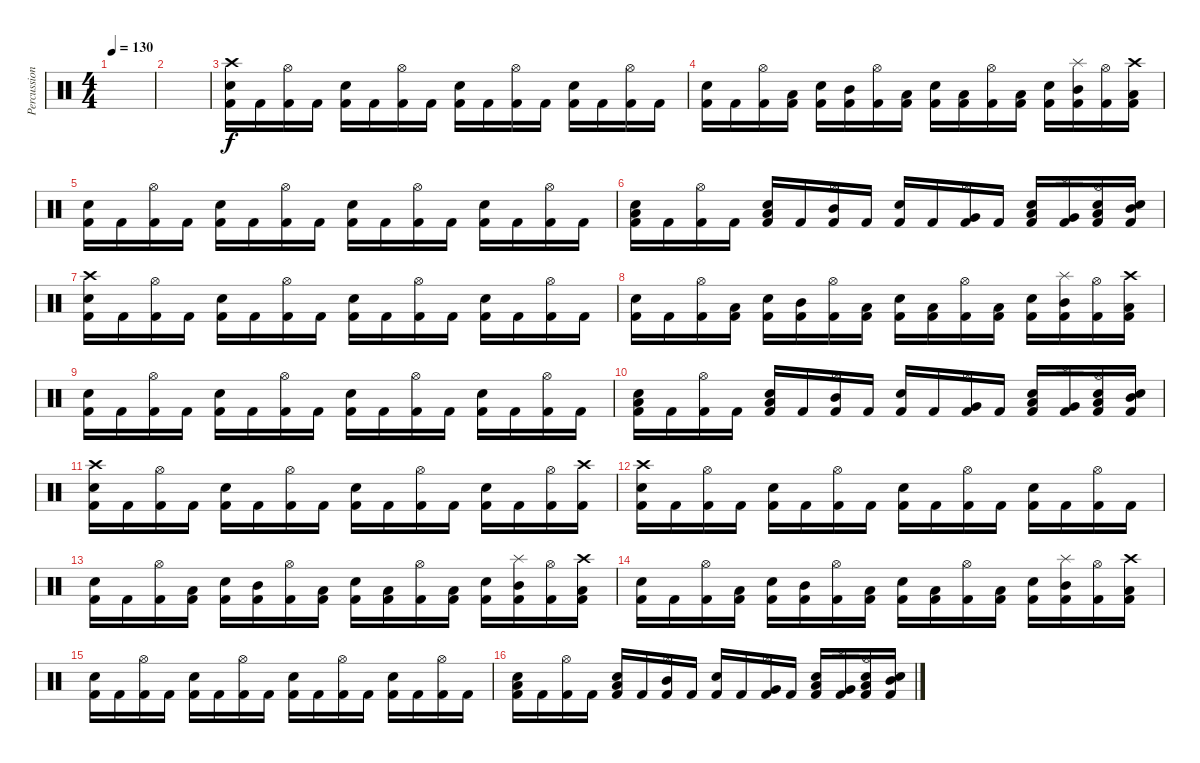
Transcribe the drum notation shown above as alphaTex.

\track ("Percussions" "Percussion") {instrument percussion}
\staff {score}
\articulation defaults
\ts (4 4)
\tempo 130
\clef neutral
\ks c
|
|
("Crash high (hit)" "Electric Snare (hit)" "Kick (hit) 2").16 "Kick (hit) 2".16 ("Hi-Hat (open)" "Kick (hit) 2").16 "Kick (hit) 2".16 ("Electric Snare (hit)" "Kick (hit) 2").16 "Kick (hit) 2".16 ("Hi-Hat (open)" "Kick (hit) 2").16 "Kick (hit) 2".16 ("Electric Snare (hit)" "Kick (hit) 2").16 "Kick (hit) 2".16 ("Hi-Hat (open)" "Kick (hit) 2").16 "Kick (hit) 2".16 ("Electric Snare (hit)" "Kick (hit) 2").16 "Kick (hit) 2".16 ("Hi-Hat (open)" "Kick (hit) 2").16 "Kick (hit) 2".16 |
("Electric Snare (hit)" "Kick (hit) 2").16 "Kick (hit) 2".16 ("Hi-Hat (open)" "Kick (hit) 2").16 ("Low Tom (hit)" "Kick (hit) 2").16 ("Electric Snare (hit)" "Kick (hit) 2").16 ("Mid Tom (hit)" "Kick (hit) 2").16 ("Hi-Hat (open)" "Kick (hit) 2").16 ("Low Tom (hit)" "Kick (hit) 2").16 ("Electric Snare (hit)" "Kick (hit) 2").16 ("Low Floor Tom (hit)" "Kick (hit) 2").16 ("Hi-Hat (open)" "Kick (hit) 2").16 ("Low Tom (hit)" "Kick (hit) 2").16 ("Electric Snare (hit)" "Kick (hit) 2").16 ("Splash (hit)" "Mid Tom (hit)" "Kick (hit) 2").16 ("Hi-Hat (open)" "Kick (hit) 2").16 ("Crash high (hit)" "Low Tom (hit)" "Kick (hit) 2").16 |
("Electric Snare (hit)" "Kick (hit) 2").16 "Kick (hit) 2".16 ("Hi-Hat (open)" "Kick (hit) 2").16 "Kick (hit) 2".16 ("Electric Snare (hit)" "Kick (hit) 2").16 "Kick (hit) 2".16 ("Hi-Hat (open)" "Kick (hit) 2").16 "Kick (hit) 2".16 ("Electric Snare (hit)" "Kick (hit) 2").16 "Kick (hit) 2".16 ("Hi-Hat (open)" "Kick (hit) 2").16 "Kick (hit) 2".16 ("Electric Snare (hit)" "Kick (hit) 2").16 "Kick (hit) 2".16 ("Hi-Hat (open)" "Kick (hit) 2").16 "Kick (hit) 2".16 |
("Low Floor Tom (hit)" "Electric Snare (hit)" "Kick (hit) 2").16 "Kick (hit) 2".16 ("Hi-Hat (open)" "Kick (hit) 2").16 "Kick (hit) 2".16 ("Low Tom (hit)" "Electric Snare (hit)" "Kick (hit) 2").16 "Kick (hit) 2".16 ("Hi-Hat (open)" "Mid Tom (hit)" "Kick (hit) 2").16 "Kick (hit) 2".16 ("Electric Snare (hit)" "Kick (hit) 2").16 "Kick (hit) 2".16 ("Hi-Hat (open)" "Very Low Tom (hit)" "Kick (hit) 2").16 "Kick (hit) 2".16 ("Low Floor Tom (hit)" "Electric Snare (hit)" "Kick (hit) 2").16 ("Splash (hit)" "Very Low Tom (hit)" "Kick (hit) 2").16 ("Hi-Hat (open)" "Low Tom (hit)" "Electric Snare (hit)" "Kick (hit) 2").16 ("Mid Tom (hit)" "Electric Snare (hit)" "Kick (hit) 2").16 |
("Crash high (hit)" "Electric Snare (hit)" "Kick (hit) 2").16 "Kick (hit) 2".16 ("Hi-Hat (open)" "Kick (hit) 2").16 "Kick (hit) 2".16 ("Electric Snare (hit)" "Kick (hit) 2").16 "Kick (hit) 2".16 ("Hi-Hat (open)" "Kick (hit) 2").16 "Kick (hit) 2".16 ("Electric Snare (hit)" "Kick (hit) 2").16 "Kick (hit) 2".16 ("Hi-Hat (open)" "Kick (hit) 2").16 "Kick (hit) 2".16 ("Electric Snare (hit)" "Kick (hit) 2").16 "Kick (hit) 2".16 ("Hi-Hat (open)" "Kick (hit) 2").16 "Kick (hit) 2".16 |
("Electric Snare (hit)" "Kick (hit) 2").16 "Kick (hit) 2".16 ("Hi-Hat (open)" "Kick (hit) 2").16 ("Low Tom (hit)" "Kick (hit) 2").16 ("Electric Snare (hit)" "Kick (hit) 2").16 ("Mid Tom (hit)" "Kick (hit) 2").16 ("Hi-Hat (open)" "Kick (hit) 2").16 ("Low Tom (hit)" "Kick (hit) 2").16 ("Electric Snare (hit)" "Kick (hit) 2").16 ("Low Floor Tom (hit)" "Kick (hit) 2").16 ("Hi-Hat (open)" "Kick (hit) 2").16 ("Low Tom (hit)" "Kick (hit) 2").16 ("Electric Snare (hit)" "Kick (hit) 2").16 ("Splash (hit)" "Mid Tom (hit)" "Kick (hit) 2").16 ("Hi-Hat (open)" "Kick (hit) 2").16 ("Crash high (hit)" "Low Tom (hit)" "Kick (hit) 2").16 |
("Electric Snare (hit)" "Kick (hit) 2").16 "Kick (hit) 2".16 ("Hi-Hat (open)" "Kick (hit) 2").16 "Kick (hit) 2".16 ("Electric Snare (hit)" "Kick (hit) 2").16 "Kick (hit) 2".16 ("Hi-Hat (open)" "Kick (hit) 2").16 "Kick (hit) 2".16 ("Electric Snare (hit)" "Kick (hit) 2").16 "Kick (hit) 2".16 ("Hi-Hat (open)" "Kick (hit) 2").16 "Kick (hit) 2".16 ("Electric Snare (hit)" "Kick (hit) 2").16 "Kick (hit) 2".16 ("Hi-Hat (open)" "Kick (hit) 2").16 "Kick (hit) 2".16 |
("Low Floor Tom (hit)" "Electric Snare (hit)" "Kick (hit) 2").16 "Kick (hit) 2".16 ("Hi-Hat (open)" "Kick (hit) 2").16 "Kick (hit) 2".16 ("Low Tom (hit)" "Electric Snare (hit)" "Kick (hit) 2").16 "Kick (hit) 2".16 ("Hi-Hat (open)" "Mid Tom (hit)" "Kick (hit) 2").16 "Kick (hit) 2".16 ("Electric Snare (hit)" "Kick (hit) 2").16 "Kick (hit) 2".16 ("Hi-Hat (open)" "Very Low Tom (hit)" "Kick (hit) 2").16 "Kick (hit) 2".16 ("Low Floor Tom (hit)" "Electric Snare (hit)" "Kick (hit) 2").16 ("Splash (hit)" "Very Low Tom (hit)" "Kick (hit) 2").16 ("Hi-Hat (open)" "Low Tom (hit)" "Electric Snare (hit)" "Kick (hit) 2").16 ("Mid Tom (hit)" "Electric Snare (hit)" "Kick (hit) 2").16 |
("Crash high (hit)" "Electric Snare (hit)" "Kick (hit) 2").16 "Kick (hit) 2".16 ("Hi-Hat (open)" "Kick (hit) 2").16 "Kick (hit) 2".16 ("Electric Snare (hit)" "Kick (hit) 2").16 "Kick (hit) 2".16 ("Hi-Hat (open)" "Kick (hit) 2").16 "Kick (hit) 2".16 ("Electric Snare (hit)" "Kick (hit) 2").16 "Kick (hit) 2".16 ("Hi-Hat (open)" "Kick (hit) 2").16 "Kick (hit) 2".16 ("Electric Snare (hit)" "Kick (hit) 2").16 "Kick (hit) 2".16 ("Hi-Hat (open)" "Kick (hit) 2").16 ("Crash high (hit)" "Kick (hit) 2").16 |
("Crash high (hit)" "Electric Snare (hit)" "Kick (hit) 2").16 "Kick (hit) 2".16 ("Hi-Hat (open)" "Kick (hit) 2").16 "Kick (hit) 2".16 ("Electric Snare (hit)" "Kick (hit) 2").16 "Kick (hit) 2".16 ("Hi-Hat (open)" "Kick (hit) 2").16 "Kick (hit) 2".16 ("Electric Snare (hit)" "Kick (hit) 2").16 "Kick (hit) 2".16 ("Hi-Hat (open)" "Kick (hit) 2").16 "Kick (hit) 2".16 ("Electric Snare (hit)" "Kick (hit) 2").16 "Kick (hit) 2".16 ("Hi-Hat (open)" "Kick (hit) 2").16 "Kick (hit) 2".16 |
("Electric Snare (hit)" "Kick (hit) 2").16 "Kick (hit) 2".16 ("Hi-Hat (open)" "Kick (hit) 2").16 ("Low Tom (hit)" "Kick (hit) 2").16 ("Electric Snare (hit)" "Kick (hit) 2").16 ("Mid Tom (hit)" "Kick (hit) 2").16 ("Hi-Hat (open)" "Kick (hit) 2").16 ("Low Tom (hit)" "Kick (hit) 2").16 ("Electric Snare (hit)" "Kick (hit) 2").16 ("Low Floor Tom (hit)" "Kick (hit) 2").16 ("Hi-Hat (open)" "Kick (hit) 2").16 ("Low Tom (hit)" "Kick (hit) 2").16 ("Electric Snare (hit)" "Kick (hit) 2").16 ("Splash (hit)" "Mid Tom (hit)" "Kick (hit) 2").16 ("Hi-Hat (open)" "Kick (hit) 2").16 ("Crash high (hit)" "Low Tom (hit)" "Kick (hit) 2").16 |
("Electric Snare (hit)" "Kick (hit) 2").16 "Kick (hit) 2".16 ("Hi-Hat (open)" "Kick (hit) 2").16 ("Low Tom (hit)" "Kick (hit) 2").16 ("Electric Snare (hit)" "Kick (hit) 2").16 ("Mid Tom (hit)" "Kick (hit) 2").16 ("Hi-Hat (open)" "Kick (hit) 2").16 ("Low Tom (hit)" "Kick (hit) 2").16 ("Electric Snare (hit)" "Kick (hit) 2").16 ("Low Floor Tom (hit)" "Kick (hit) 2").16 ("Hi-Hat (open)" "Kick (hit) 2").16 ("Low Tom (hit)" "Kick (hit) 2").16 ("Electric Snare (hit)" "Kick (hit) 2").16 ("Splash (hit)" "Mid Tom (hit)" "Kick (hit) 2").16 ("Hi-Hat (open)" "Kick (hit) 2").16 ("Crash high (hit)" "Low Tom (hit)" "Kick (hit) 2").16 |
("Electric Snare (hit)" "Kick (hit) 2").16 "Kick (hit) 2".16 ("Hi-Hat (open)" "Kick (hit) 2").16 "Kick (hit) 2".16 ("Electric Snare (hit)" "Kick (hit) 2").16 "Kick (hit) 2".16 ("Hi-Hat (open)" "Kick (hit) 2").16 "Kick (hit) 2".16 ("Electric Snare (hit)" "Kick (hit) 2").16 "Kick (hit) 2".16 ("Hi-Hat (open)" "Kick (hit) 2").16 "Kick (hit) 2".16 ("Electric Snare (hit)" "Kick (hit) 2").16 "Kick (hit) 2".16 ("Hi-Hat (open)" "Kick (hit) 2").16 "Kick (hit) 2".16 |
("Low Floor Tom (hit)" "Electric Snare (hit)" "Kick (hit) 2").16 "Kick (hit) 2".16 ("Hi-Hat (open)" "Kick (hit) 2").16 "Kick (hit) 2".16 ("Low Tom (hit)" "Electric Snare (hit)" "Kick (hit) 2").16 "Kick (hit) 2".16 ("Hi-Hat (open)" "Mid Tom (hit)" "Kick (hit) 2").16 "Kick (hit) 2".16 ("Electric Snare (hit)" "Kick (hit) 2").16 "Kick (hit) 2".16 ("Hi-Hat (open)" "Very Low Tom (hit)" "Kick (hit) 2").16 "Kick (hit) 2".16 ("Low Floor Tom (hit)" "Electric Snare (hit)" "Kick (hit) 2").16 ("Splash (hit)" "Very Low Tom (hit)" "Kick (hit) 2").16 ("Hi-Hat (open)" "Low Tom (hit)" "Electric Snare (hit)" "Kick (hit) 2").16 ("Mid Tom (hit)" "Electric Snare (hit)" "Kick (hit) 2").16
